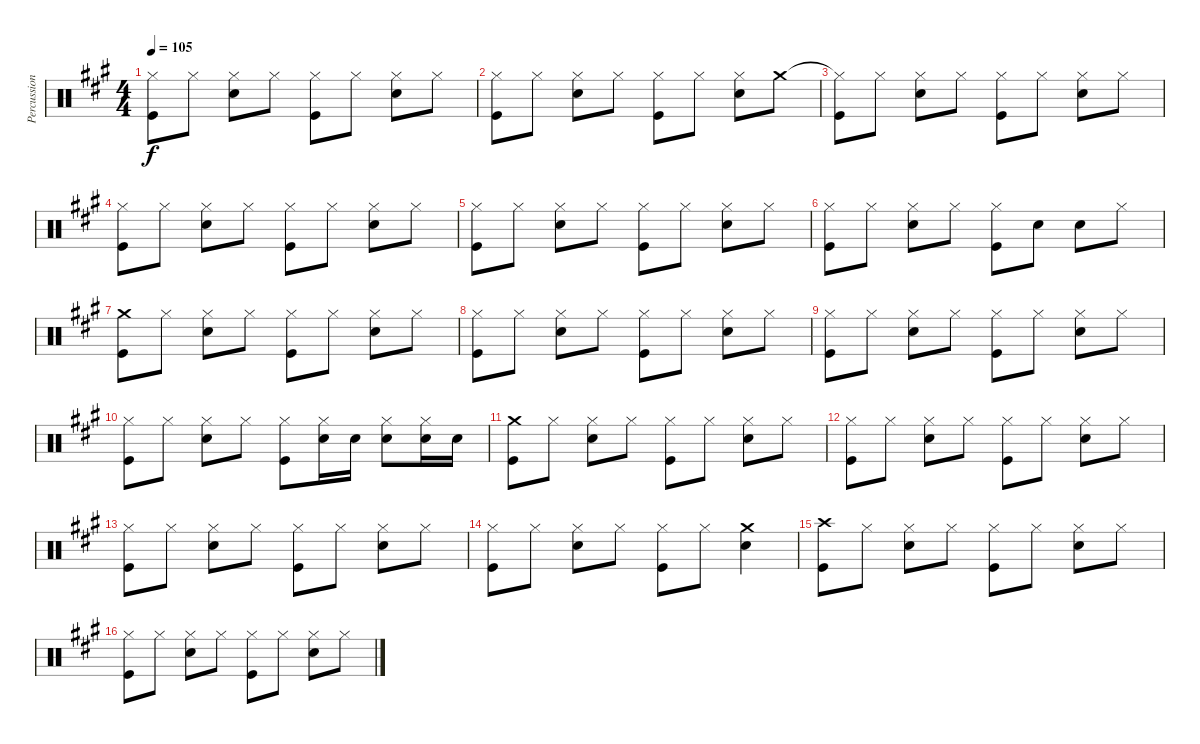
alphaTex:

\track ("Percussion" "Percussion") {instrument percussion}
\staff {score}
\articulation defaults
\ts (4 4)
\tempo 105
\clef neutral
\ks a
("Hi-Hat (closed)" "Kick (hit)").8{dy f} "Hi-Hat (closed)".8 ("Hi-Hat (closed)" "Snare (hit) 2").8 "Hi-Hat (closed)".8 ("Hi-Hat (closed)" "Kick (hit)").8 "Hi-Hat (closed)".8 ("Hi-Hat (closed)" "Snare (hit) 2").8 "Hi-Hat (closed)".8 |
("Hi-Hat (closed)" "Kick (hit)").8 "Hi-Hat (closed)".8 ("Hi-Hat (closed)" "Snare (hit) 2").8 "Hi-Hat (closed)".8 ("Hi-Hat (closed)" "Kick (hit)").8 "Hi-Hat (closed)".8 ("Hi-Hat (closed)" "Snare (hit) 2").8 "Crash medium (hit)".8 |
("Hi-Hat (closed)"{t} "Kick (hit)").8 "Hi-Hat (closed)".8 ("Hi-Hat (closed)" "Snare (hit) 2").8 "Hi-Hat (closed)".8 ("Hi-Hat (closed)" "Kick (hit)").8 "Hi-Hat (closed)".8 ("Hi-Hat (closed)" "Snare (hit) 2").8 "Hi-Hat (closed)".8 |
("Hi-Hat (closed)" "Kick (hit)").8 "Hi-Hat (closed)".8 ("Hi-Hat (closed)" "Snare (hit) 2").8 "Hi-Hat (closed)".8 ("Hi-Hat (closed)" "Kick (hit)").8 "Hi-Hat (closed)".8 ("Hi-Hat (closed)" "Snare (hit) 2").8 "Hi-Hat (closed)".8 |
("Hi-Hat (closed)" "Kick (hit)").8 "Hi-Hat (closed)".8 ("Hi-Hat (closed)" "Snare (hit) 2").8 "Hi-Hat (closed)".8 ("Hi-Hat (closed)" "Kick (hit)").8 "Hi-Hat (closed)".8 ("Hi-Hat (closed)" "Snare (hit) 2").8 "Hi-Hat (closed)".8 |
("Hi-Hat (closed)" "Kick (hit)").8 "Hi-Hat (closed)".8 ("Hi-Hat (closed)" "Snare (hit) 2").8 "Hi-Hat (closed)".8 ("Hi-Hat (closed)" "Kick (hit)").8 "Snare (hit) 2".8 "Snare (hit) 2".8 "Hi-Hat (closed)".8 |
("Crash medium (hit)" "Kick (hit)").8 "Hi-Hat (closed)".8 ("Hi-Hat (closed)" "Snare (hit) 2").8 "Hi-Hat (closed)".8 ("Hi-Hat (closed)" "Kick (hit)").8 "Hi-Hat (closed)".8 ("Hi-Hat (closed)" "Snare (hit) 2").8 "Hi-Hat (closed)".8 |
("Hi-Hat (closed)" "Kick (hit)").8 "Hi-Hat (closed)".8 ("Hi-Hat (closed)" "Snare (hit) 2").8 "Hi-Hat (closed)".8 ("Hi-Hat (closed)" "Kick (hit)").8 "Hi-Hat (closed)".8 ("Hi-Hat (closed)" "Snare (hit) 2").8 "Hi-Hat (closed)".8 |
("Hi-Hat (closed)" "Kick (hit)").8 "Hi-Hat (closed)".8 ("Hi-Hat (closed)" "Snare (hit) 2").8 "Hi-Hat (closed)".8 ("Hi-Hat (closed)" "Kick (hit)").8 "Hi-Hat (closed)".8 ("Hi-Hat (closed)" "Snare (hit) 2").8 "Hi-Hat (closed)".8 |
("Hi-Hat (closed)" "Kick (hit)").8 "Hi-Hat (closed)".8 ("Hi-Hat (closed)" "Snare (hit) 2").8 "Hi-Hat (closed)".8 ("Hi-Hat (closed)" "Kick (hit)").8 ("Hi-Hat (closed)" "Snare (hit) 2").16 "Snare (hit) 2".16 ("Hi-Hat (closed)" "Snare (hit) 2").8 ("Hi-Hat (closed)" "Snare (hit) 2").16 "Snare (hit) 2".16 |
("Crash medium (hit)" "Kick (hit)").8 "Hi-Hat (closed)".8 ("Hi-Hat (closed)" "Snare (hit) 2").8 "Hi-Hat (closed)".8 ("Hi-Hat (closed)" "Kick (hit)").8 "Hi-Hat (closed)".8 ("Hi-Hat (closed)" "Snare (hit) 2").8 "Hi-Hat (closed)".8 |
("Hi-Hat (closed)" "Kick (hit)").8 "Hi-Hat (closed)".8 ("Hi-Hat (closed)" "Snare (hit) 2").8 "Hi-Hat (closed)".8 ("Hi-Hat (closed)" "Kick (hit)").8 "Hi-Hat (closed)".8 ("Hi-Hat (closed)" "Snare (hit) 2").8 "Hi-Hat (closed)".8 |
("Hi-Hat (closed)" "Kick (hit)").8 "Hi-Hat (closed)".8 ("Hi-Hat (closed)" "Snare (hit) 2").8 "Hi-Hat (closed)".8 ("Hi-Hat (closed)" "Kick (hit)").8 "Hi-Hat (closed)".8 ("Hi-Hat (closed)" "Snare (hit) 2").8 "Hi-Hat (closed)".8 |
("Hi-Hat (closed)" "Kick (hit)").8 "Hi-Hat (closed)".8 ("Hi-Hat (closed)" "Snare (hit) 2").8 "Hi-Hat (closed)".8 ("Hi-Hat (closed)" "Kick (hit)").8 "Hi-Hat (closed)".8 ("Crash medium (hit)" "Snare (hit) 2").4 |
("Crash high (hit)" "Kick (hit)").8 "Hi-Hat (closed)".8 ("Hi-Hat (closed)" "Snare (hit) 2").8 "Hi-Hat (closed)".8 ("Hi-Hat (closed)" "Kick (hit)").8 "Hi-Hat (closed)".8 ("Hi-Hat (closed)" "Snare (hit) 2").8 "Hi-Hat (closed)".8 |
("Hi-Hat (closed)" "Kick (hit)").8 "Hi-Hat (closed)".8 ("Hi-Hat (closed)" "Snare (hit) 2").8 "Hi-Hat (closed)".8 ("Hi-Hat (closed)" "Kick (hit)").8 "Hi-Hat (closed)".8 ("Hi-Hat (closed)" "Snare (hit) 2").8 "Hi-Hat (closed)".8
